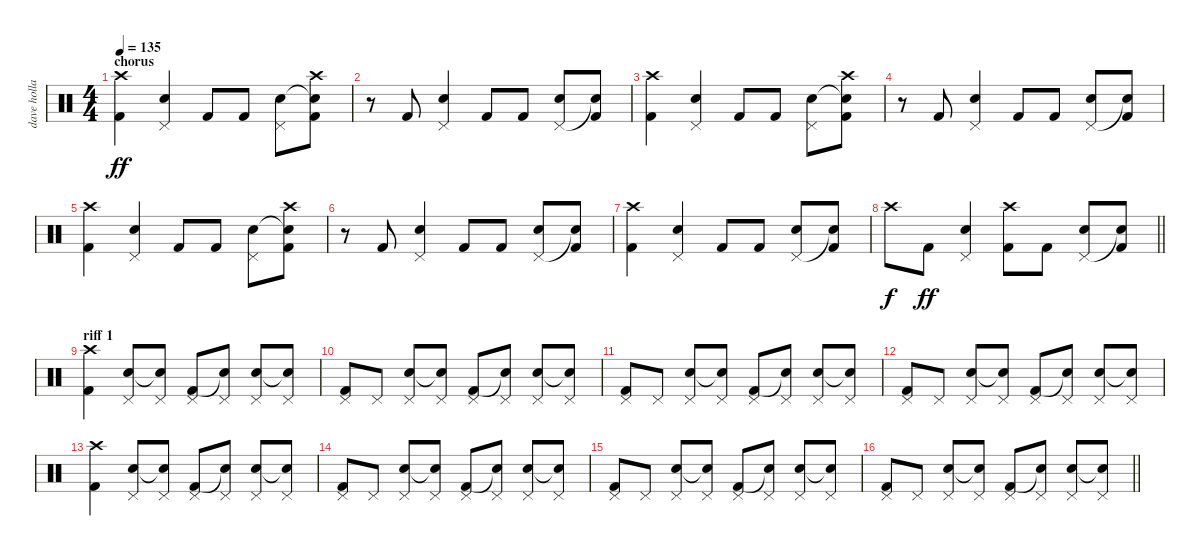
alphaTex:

\track ("dave holland" "dave holla") {instrument percussion}
\staff {score}
\articulation defaults
\ts (4 4)
\section ("" "chorus")
\tempo 135
\clef neutral
\ks c
("Crash high (hit)" "Kick (hit) 2").4{dy ff} ("Pedal Hi-Hat (hit)" "Electric Snare (hit)").4 "Kick (hit) 2".8 "Kick (hit) 2".8 ("Pedal Hi-Hat (hit)" "Electric Snare (hit)").8 ("Crash high (hit)" "Snare (hit)"{t} "Kick (hit) 2").8 |
r.8 "Kick (hit) 2".8 ("Pedal Hi-Hat (hit)" "Electric Snare (hit)").4 "Kick (hit) 2".8 "Kick (hit) 2".8 ("Pedal Hi-Hat (hit)" "Electric Snare (hit)").8 ("Snare (hit)"{t} "Kick (hit) 2").8 |
("Crash high (hit)" "Kick (hit) 2").4 ("Pedal Hi-Hat (hit)" "Electric Snare (hit)").4 "Kick (hit) 2".8 "Kick (hit) 2".8 ("Pedal Hi-Hat (hit)" "Electric Snare (hit)").8 ("Crash high (hit)" "Snare (hit)"{t} "Kick (hit) 2").8 |
r.8 "Kick (hit) 2".8 ("Pedal Hi-Hat (hit)" "Electric Snare (hit)").4 "Kick (hit) 2".8 "Kick (hit) 2".8 ("Pedal Hi-Hat (hit)" "Electric Snare (hit)").8 ("Snare (hit)"{t} "Kick (hit) 2").8 |
("Crash high (hit)" "Kick (hit) 2").4 ("Pedal Hi-Hat (hit)" "Electric Snare (hit)").4 "Kick (hit) 2".8 "Kick (hit) 2".8 ("Pedal Hi-Hat (hit)" "Electric Snare (hit)").8 ("Crash high (hit)" "Snare (hit)"{t} "Kick (hit) 2").8 |
r.8 "Kick (hit) 2".8 ("Pedal Hi-Hat (hit)" "Electric Snare (hit)").4 "Kick (hit) 2".8 "Kick (hit) 2".8 ("Pedal Hi-Hat (hit)" "Electric Snare (hit)").8 ("Snare (hit)"{t} "Kick (hit) 2").8 |
("Crash high (hit)" "Kick (hit) 2").4 ("Pedal Hi-Hat (hit)" "Electric Snare (hit)").4 "Kick (hit) 2".8 "Kick (hit) 2".8 ("Pedal Hi-Hat (hit)" "Electric Snare (hit)").8 ("Snare (hit)"{t} "Kick (hit) 2").8 |
\barLineRight lightlight "Crash high (hit)".8{dy f} "Kick (hit) 2".8{dy ff}
("Pedal Hi-Hat (hit)" "Electric Snare (hit)").4 ("Crash high (hit)" "Kick (hit) 2").8 "Kick (hit) 2".8 ("Pedal Hi-Hat (hit)" "Electric Snare (hit)").8 ("Snare (hit)"{t} "Kick (hit) 2").8 |
\section ("" "riff 1")
("Crash high (hit)" "Kick (hit) 2").4 ("Pedal Hi-Hat (hit)" "Electric Snare (hit)").8 ("Pedal Hi-Hat (hit)" "Electric Snare (hit)"{t}).8 ("Pedal Hi-Hat (hit)" "Kick (hit) 2").8 ("Pedal Hi-Hat (hit)" "Snare (hit)"{t}).8 ("Pedal Hi-Hat (hit)" "Electric Snare (hit)").8 ("Pedal Hi-Hat (hit)" "Snare (hit)"{t}).8 |
("Pedal Hi-Hat (hit)" "Kick (hit) 2").8 "Pedal Hi-Hat (hit)".8 ("Pedal Hi-Hat (hit)" "Electric Snare (hit)").8 ("Pedal Hi-Hat (hit)" "Electric Snare (hit)"{t}).8 ("Pedal Hi-Hat (hit)" "Kick (hit) 2").8 ("Pedal Hi-Hat (hit)" "Snare (hit)"{t}).8 ("Pedal Hi-Hat (hit)" "Electric Snare (hit)").8 ("Pedal Hi-Hat (hit)" "Snare (hit)"{t}).8 |
("Pedal Hi-Hat (hit)" "Kick (hit) 2").8 "Pedal Hi-Hat (hit)".8 ("Pedal Hi-Hat (hit)" "Electric Snare (hit)").8 ("Pedal Hi-Hat (hit)" "Electric Snare (hit)"{t}).8 ("Pedal Hi-Hat (hit)" "Kick (hit) 2").8 ("Pedal Hi-Hat (hit)" "Snare (hit)"{t}).8 ("Pedal Hi-Hat (hit)" "Electric Snare (hit)").8 ("Pedal Hi-Hat (hit)" "Snare (hit)"{t}).8 |
("Pedal Hi-Hat (hit)" "Kick (hit) 2").8 "Pedal Hi-Hat (hit)".8 ("Pedal Hi-Hat (hit)" "Electric Snare (hit)").8 ("Pedal Hi-Hat (hit)" "Electric Snare (hit)"{t}).8 ("Pedal Hi-Hat (hit)" "Kick (hit) 2").8 ("Pedal Hi-Hat (hit)" "Snare (hit)"{t}).8 ("Pedal Hi-Hat (hit)" "Electric Snare (hit)").8 ("Pedal Hi-Hat (hit)" "Snare (hit)"{t}).8 |
("Crash high (hit)" "Kick (hit) 2").4 ("Pedal Hi-Hat (hit)" "Electric Snare (hit)").8 ("Pedal Hi-Hat (hit)" "Electric Snare (hit)"{t}).8 ("Pedal Hi-Hat (hit)" "Kick (hit) 2").8 ("Pedal Hi-Hat (hit)" "Snare (hit)"{t}).8 ("Pedal Hi-Hat (hit)" "Electric Snare (hit)").8 ("Pedal Hi-Hat (hit)" "Snare (hit)"{t}).8 |
("Pedal Hi-Hat (hit)" "Kick (hit) 2").8 "Pedal Hi-Hat (hit)".8 ("Pedal Hi-Hat (hit)" "Electric Snare (hit)").8 ("Pedal Hi-Hat (hit)" "Electric Snare (hit)"{t}).8 ("Pedal Hi-Hat (hit)" "Kick (hit) 2").8 ("Pedal Hi-Hat (hit)" "Snare (hit)"{t}).8 ("Pedal Hi-Hat (hit)" "Electric Snare (hit)").8 ("Pedal Hi-Hat (hit)" "Snare (hit)"{t}).8 |
("Pedal Hi-Hat (hit)" "Kick (hit) 2").8 "Pedal Hi-Hat (hit)".8 ("Pedal Hi-Hat (hit)" "Electric Snare (hit)").8 ("Pedal Hi-Hat (hit)" "Electric Snare (hit)"{t}).8 ("Pedal Hi-Hat (hit)" "Kick (hit) 2").8 ("Pedal Hi-Hat (hit)" "Snare (hit)"{t}).8 ("Pedal Hi-Hat (hit)" "Electric Snare (hit)").8 ("Pedal Hi-Hat (hit)" "Snare (hit)"{t}).8 |
\barLineRight lightlight
("Pedal Hi-Hat (hit)" "Kick (hit) 2").8 "Pedal Hi-Hat (hit)".8 ("Pedal Hi-Hat (hit)" "Electric Snare (hit)").8 ("Pedal Hi-Hat (hit)" "Electric Snare (hit)"{t}).8 ("Pedal Hi-Hat (hit)" "Kick (hit) 2").8 ("Pedal Hi-Hat (hit)" "Snare (hit)"{t}).8 ("Pedal Hi-Hat (hit)" "Electric Snare (hit)").8 ("Pedal Hi-Hat (hit)" "Snare (hit)"{t}).8
